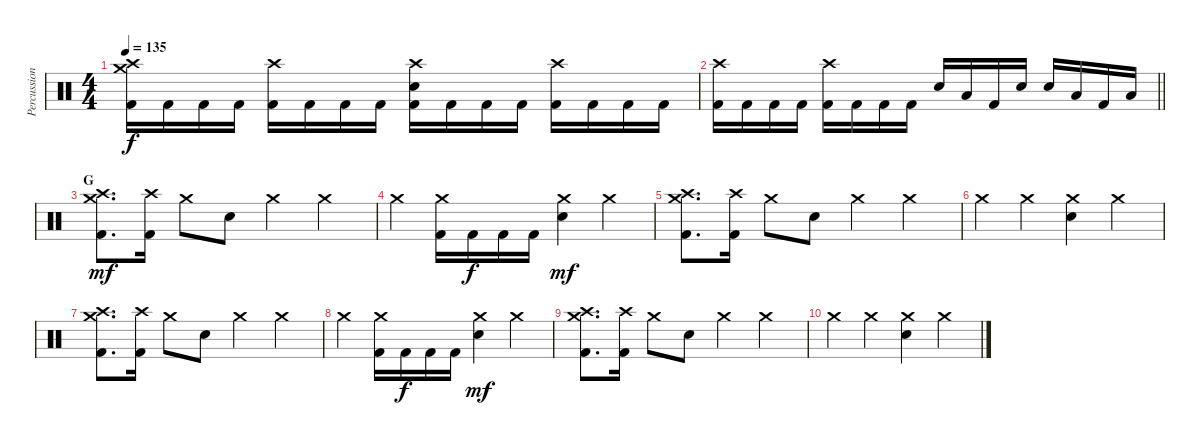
\track ("Percussion" "Percussion") {instrument percussion}
\staff {score}
\articulation defaults
\ts (4 4)
\tempo 135
\clef neutral
\ks c
("Crash high (hit)" "Crash medium (hit)" "Kick (hit) 2").16{dy f} "Kick (hit) 2".16 "Kick (hit) 2".16 "Kick (hit) 2".16 ("Crash high (hit)" "Kick (hit) 2").16 "Kick (hit) 2".16 "Kick (hit) 2".16 "Kick (hit) 2".16 ("Crash high (hit)" "Electric Snare (hit)" "Kick (hit) 2").16 "Kick (hit) 2".16 "Kick (hit) 2".16 "Kick (hit) 2".16 ("Crash high (hit)" "Kick (hit) 2").16 "Kick (hit) 2".16 "Kick (hit) 2".16 "Kick (hit) 2".16 |
\barLineRight lightlight
("Crash high (hit)" "Kick (hit) 2").16 "Kick (hit) 2".16 "Kick (hit) 2".16 "Kick (hit) 2".16 ("Crash high (hit)" "Kick (hit) 2").16 "Kick (hit) 2".16 "Kick (hit) 2".16 "Kick (hit) 2".16 "Electric Snare (hit)".16 "Low Floor Tom (hit)".16 "Kick (hit) 2".16 "Electric Snare (hit)".16 "Electric Snare (hit)".16 "Low Floor Tom (hit)".16 "Kick (hit) 2".16 "Low Floor Tom (hit)".16 |
\section ("" "G")
("Crash medium (hit)" "Crash high (hit)" "Kick (hit) 2").8{d dy mf} ("Crash high (hit)" "Kick (hit) 2").16 "Crash medium (hit)".8 "Electric Snare (hit)".8 "Crash medium (hit)".4 "Crash medium (hit)".4 |
"Crash medium (hit)".4 ("Crash medium (hit)" "Kick (hit) 2").16 "Kick (hit) 2".16{dy f} "Kick (hit) 2".16 "Kick (hit) 2".16 ("Crash medium (hit)" "Electric Snare (hit)").4{dy mf} "Crash medium (hit)".4 |
("Crash medium (hit)" "Crash high (hit)" "Kick (hit) 2").8{d} ("Crash high (hit)" "Kick (hit) 2").16 "Crash medium (hit)".8 "Electric Snare (hit)".8 "Crash medium (hit)".4 "Crash medium (hit)".4 |
"Crash medium (hit)".4 "Crash medium (hit)".4 ("Crash medium (hit)" "Electric Snare (hit)").4 "Crash medium (hit)".4 |
("Crash medium (hit)" "Crash high (hit)" "Kick (hit) 2").8{d} ("Crash high (hit)" "Kick (hit) 2").16 "Crash medium (hit)".8 "Electric Snare (hit)".8 "Crash medium (hit)".4 "Crash medium (hit)".4 |
"Crash medium (hit)".4 ("Crash medium (hit)" "Kick (hit) 2").16 "Kick (hit) 2".16{dy f} "Kick (hit) 2".16 "Kick (hit) 2".16 ("Crash medium (hit)" "Electric Snare (hit)").4{dy mf} "Crash medium (hit)".4 |
("Crash medium (hit)" "Crash high (hit)" "Kick (hit) 2").8{d} ("Crash high (hit)" "Kick (hit) 2").16 "Crash medium (hit)".8 "Electric Snare (hit)".8 "Crash medium (hit)".4 "Crash medium (hit)".4 |
"Crash medium (hit)".4 "Crash medium (hit)".4 ("Crash medium (hit)" "Electric Snare (hit)").4 "Crash medium (hit)".4
